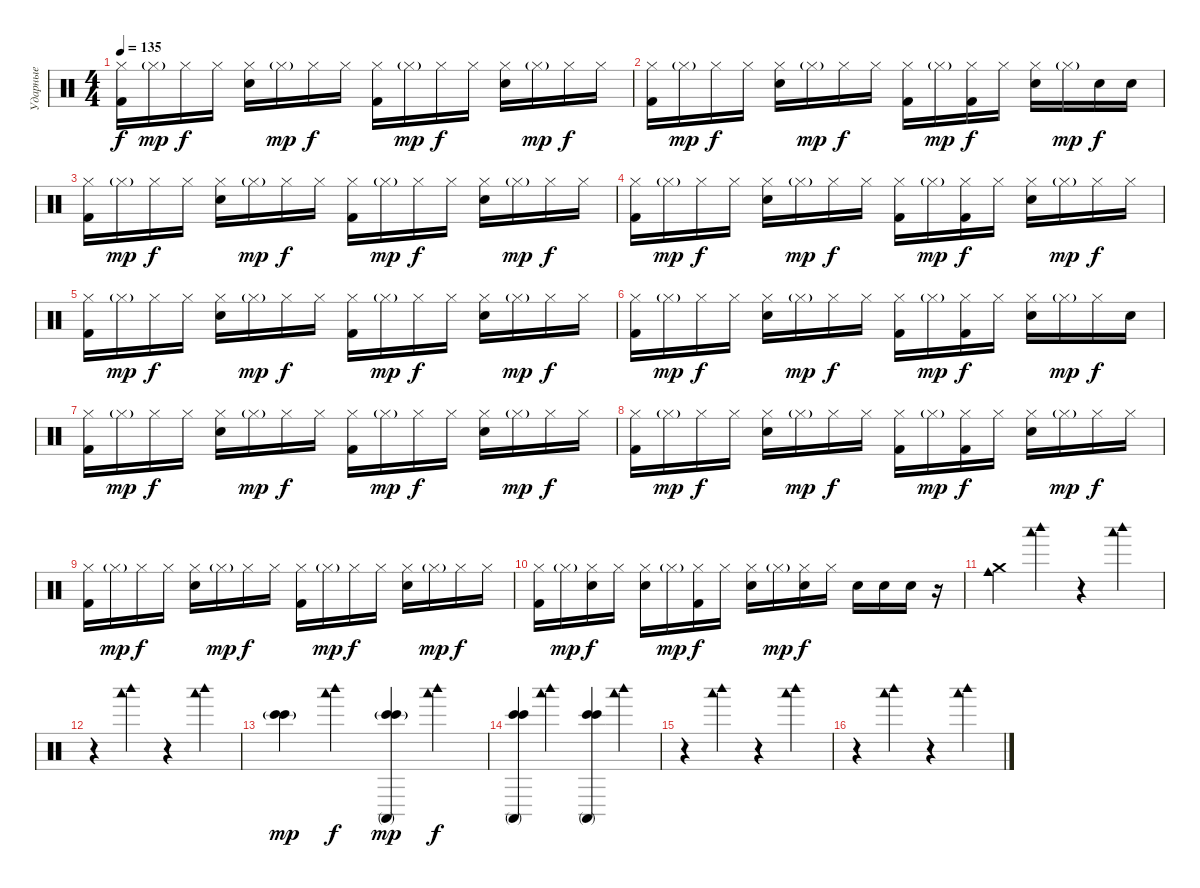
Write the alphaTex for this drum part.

\track ("Ударные" "Ударные") {instrument percussion}
\staff {score}
\articulation defaults
\ts (4 4)
\tempo 135
\clef neutral
\ks c
("Hi-Hat (closed)" "Kick (hit) 2").16{dy f} "Hi-Hat (closed)"{g}.16{dy mp} "Hi-Hat (closed)".16{dy f} "Hi-Hat (closed)".16 ("Hi-Hat (closed)" "Snare (hit) 2").16 "Hi-Hat (closed)"{g}.16{dy mp} "Hi-Hat (closed)".16{dy f} "Hi-Hat (closed)".16 ("Hi-Hat (closed)" "Kick (hit) 2").16 "Hi-Hat (closed)"{g}.16{dy mp} "Hi-Hat (closed)".16{dy f} "Hi-Hat (closed)".16 ("Hi-Hat (closed)" "Snare (hit) 2").16 "Hi-Hat (closed)"{g}.16{dy mp} "Hi-Hat (closed)".16{dy f} "Hi-Hat (closed)".16 |
("Hi-Hat (closed)" "Kick (hit) 2").16 "Hi-Hat (closed)"{g}.16{dy mp} "Hi-Hat (closed)".16{dy f} "Hi-Hat (closed)".16 ("Hi-Hat (closed)" "Snare (hit) 2").16 "Hi-Hat (closed)"{g}.16{dy mp} "Hi-Hat (closed)".16{dy f} "Hi-Hat (closed)".16 ("Hi-Hat (closed)" "Kick (hit) 2").16 "Hi-Hat (closed)"{g}.16{dy mp} ("Hi-Hat (closed)" "Kick (hit) 2").16{dy f} "Hi-Hat (closed)".16 ("Hi-Hat (closed)" "Snare (hit) 2").16 "Hi-Hat (closed)"{g}.16{dy mp} "Snare (hit) 2".16{dy f} "Snare (hit) 2".16 |
("Hi-Hat (closed)" "Kick (hit) 2").16 "Hi-Hat (closed)"{g}.16{dy mp} "Hi-Hat (closed)".16{dy f} "Hi-Hat (closed)".16 ("Hi-Hat (closed)" "Snare (hit) 2").16 "Hi-Hat (closed)"{g}.16{dy mp} "Hi-Hat (closed)".16{dy f} "Hi-Hat (closed)".16 ("Hi-Hat (closed)" "Kick (hit) 2").16 "Hi-Hat (closed)"{g}.16{dy mp} "Hi-Hat (closed)".16{dy f} "Hi-Hat (closed)".16 ("Hi-Hat (closed)" "Snare (hit) 2").16 "Hi-Hat (closed)"{g}.16{dy mp} "Hi-Hat (closed)".16{dy f} "Hi-Hat (closed)".16 |
("Hi-Hat (closed)" "Kick (hit) 2").16 "Hi-Hat (closed)"{g}.16{dy mp} "Hi-Hat (closed)".16{dy f} "Hi-Hat (closed)".16 ("Hi-Hat (closed)" "Snare (hit) 2").16 "Hi-Hat (closed)"{g}.16{dy mp} "Hi-Hat (closed)".16{dy f} "Hi-Hat (closed)".16 ("Hi-Hat (closed)" "Kick (hit) 2").16 "Hi-Hat (closed)"{g}.16{dy mp} ("Hi-Hat (closed)" "Kick (hit) 2").16{dy f} "Hi-Hat (closed)".16 ("Hi-Hat (closed)" "Snare (hit) 2").16 "Hi-Hat (closed)"{g}.16{dy mp} "Hi-Hat (closed)".16{dy f} "Hi-Hat (closed)".16 |
("Hi-Hat (closed)" "Kick (hit) 2").16 "Hi-Hat (closed)"{g}.16{dy mp} "Hi-Hat (closed)".16{dy f} "Hi-Hat (closed)".16 ("Hi-Hat (closed)" "Snare (hit) 2").16 "Hi-Hat (closed)"{g}.16{dy mp} "Hi-Hat (closed)".16{dy f} "Hi-Hat (closed)".16 ("Hi-Hat (closed)" "Kick (hit) 2").16 "Hi-Hat (closed)"{g}.16{dy mp} "Hi-Hat (closed)".16{dy f} "Hi-Hat (closed)".16 ("Hi-Hat (closed)" "Snare (hit) 2").16 "Hi-Hat (closed)"{g}.16{dy mp} "Hi-Hat (closed)".16{dy f} "Hi-Hat (closed)".16 |
("Hi-Hat (closed)" "Kick (hit) 2").16 "Hi-Hat (closed)"{g}.16{dy mp} "Hi-Hat (closed)".16{dy f} "Hi-Hat (closed)".16 ("Hi-Hat (closed)" "Snare (hit) 2").16 "Hi-Hat (closed)"{g}.16{dy mp} "Hi-Hat (closed)".16{dy f} "Hi-Hat (closed)".16 ("Hi-Hat (closed)" "Kick (hit) 2").16 "Hi-Hat (closed)"{g}.16{dy mp} ("Hi-Hat (closed)" "Kick (hit) 2").16{dy f} "Hi-Hat (closed)".16 ("Hi-Hat (closed)" "Snare (hit) 2").16 "Hi-Hat (closed)"{g}.16{dy mp} "Hi-Hat (closed)".16{dy f} "Snare (hit) 2".16 |
("Hi-Hat (closed)" "Kick (hit) 2").16 "Hi-Hat (closed)"{g}.16{dy mp} "Hi-Hat (closed)".16{dy f} "Hi-Hat (closed)".16 ("Hi-Hat (closed)" "Snare (hit) 2").16 "Hi-Hat (closed)"{g}.16{dy mp} "Hi-Hat (closed)".16{dy f} "Hi-Hat (closed)".16 ("Hi-Hat (closed)" "Kick (hit) 2").16 "Hi-Hat (closed)"{g}.16{dy mp} "Hi-Hat (closed)".16{dy f} "Hi-Hat (closed)".16 ("Hi-Hat (closed)" "Snare (hit) 2").16 "Hi-Hat (closed)"{g}.16{dy mp} "Hi-Hat (closed)".16{dy f} "Hi-Hat (closed)".16 |
("Hi-Hat (closed)" "Kick (hit) 2").16 "Hi-Hat (closed)"{g}.16{dy mp} "Hi-Hat (closed)".16{dy f} "Hi-Hat (closed)".16 ("Hi-Hat (closed)" "Snare (hit) 2").16 "Hi-Hat (closed)"{g}.16{dy mp} "Hi-Hat (closed)".16{dy f} "Hi-Hat (closed)".16 ("Hi-Hat (closed)" "Kick (hit) 2").16 "Hi-Hat (closed)"{g}.16{dy mp} ("Hi-Hat (closed)" "Kick (hit) 2").16{dy f} "Hi-Hat (closed)".16 ("Hi-Hat (closed)" "Snare (hit) 2").16 "Hi-Hat (closed)"{g}.16{dy mp} "Hi-Hat (closed)".16{dy f} "Hi-Hat (closed)".16 |
("Hi-Hat (closed)" "Kick (hit) 2").16 "Hi-Hat (closed)"{g}.16{dy mp} "Hi-Hat (closed)".16{dy f} "Hi-Hat (closed)".16 ("Hi-Hat (closed)" "Snare (hit) 2").16 "Hi-Hat (closed)"{g}.16{dy mp} "Hi-Hat (closed)".16{dy f} "Hi-Hat (closed)".16 ("Hi-Hat (closed)" "Kick (hit) 2").16 "Hi-Hat (closed)"{g}.16{dy mp} "Hi-Hat (closed)".16{dy f} "Hi-Hat (closed)".16 ("Hi-Hat (closed)" "Snare (hit) 2").16 "Hi-Hat (closed)"{g}.16{dy mp} "Hi-Hat (closed)".16{dy f} "Hi-Hat (closed)".16 |
("Hi-Hat (closed)" "Kick (hit) 2").16 "Hi-Hat (closed)"{g}.16{dy mp} ("Hi-Hat (closed)" "Snare (hit) 2").16{dy f} "Hi-Hat (closed)".16 ("Hi-Hat (closed)" "Snare (hit) 2").16 "Hi-Hat (closed)"{g}.16{dy mp} ("Hi-Hat (closed)" "Kick (hit) 2").16{dy f} "Hi-Hat (closed)".16 ("Hi-Hat (closed)" "Snare (hit) 2").16 "Hi-Hat (closed)"{g}.16{dy mp} ("Hi-Hat (closed)" "Snare (hit) 2").16{dy f} "Hi-Hat (closed)".16 "Snare (hit) 2".16 "Snare (hit) 2".16 "Snare (hit) 2".16 r.16 |
("Crash medium (hit)" "Cowbell medium (hit)").4 ("Woodblock high (hit)" "Woodblock low (hit)").4 r.4 ("Woodblock high (hit)" "Woodblock low (hit)").4 |
r.4 ("Woodblock high (hit)" "Woodblock low (hit)").4 r.4 ("Woodblock high (hit)" "Woodblock low (hit)").4 |
("Bongo High (hit)" "Bongo High (hit)"{g}).4{dy mp} ("Woodblock low (hit)" "Woodblock high (hit)").4{dy f} ("Bongo High (hit)" "Bongo High (hit)"{g} "Conga high (mute)").4{dy mp} ("Woodblock low (hit)" "Woodblock high (hit)").4{dy f} |
("Bongo High (hit)" "Bongo High (hit)" "Conga high (mute)").4 ("Woodblock low (hit)" "Woodblock high (hit)").4 ("Bongo High (hit)" "Bongo High (hit)" "Conga high (mute)").4 ("Woodblock low (hit)" "Woodblock high (hit)").4 |
r.4 ("Woodblock low (hit)" "Woodblock high (hit)").4 r.4 ("Woodblock low (hit)" "Woodblock high (hit)").4 |
r.4 ("Woodblock low (hit)" "Woodblock high (hit)").4 r.4 ("Woodblock low (hit)" "Woodblock high (hit)").4
